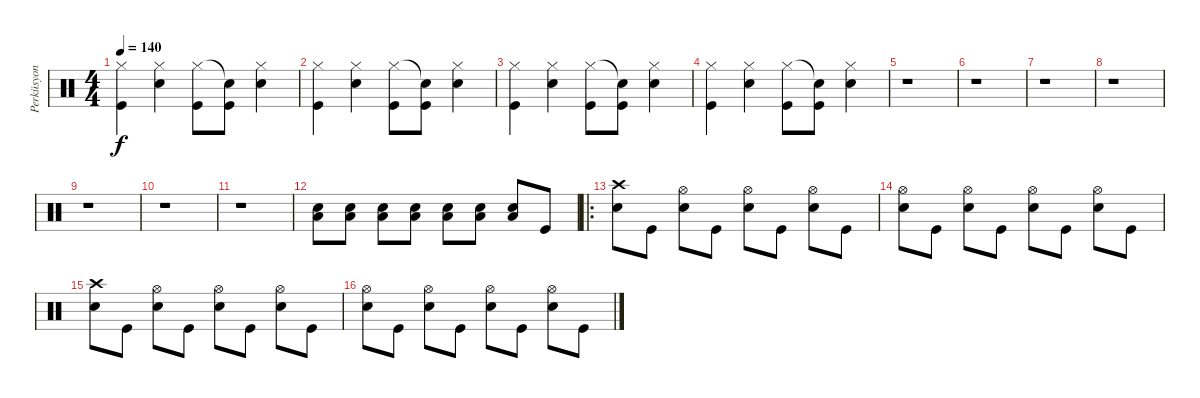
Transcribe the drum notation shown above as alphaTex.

\track ("Perküsyon" "Perküsyon") {instrument percussion}
\staff {score}
\articulation defaults
\ts (4 4)
\tempo 140
\clef neutral
\ks c
("Kick (hit)" "Hi-Hat (closed)").4{dy f} ("Electric Snare (hit)" "Hi-Hat (closed)").4 ("Kick (hit)" "Hi-Hat (closed)").8 ("Kick (hit)" "Snare (hit)"{t}).8 ("Electric Snare (hit)" "Hi-Hat (closed)").4 |
("Kick (hit)" "Hi-Hat (closed)").4 ("Electric Snare (hit)" "Hi-Hat (closed)").4 ("Kick (hit)" "Hi-Hat (closed)").8 ("Kick (hit)" "Snare (hit)"{t}).8 ("Electric Snare (hit)" "Hi-Hat (closed)").4 |
("Kick (hit)" "Hi-Hat (closed)").4 ("Electric Snare (hit)" "Hi-Hat (closed)").4 ("Kick (hit)" "Hi-Hat (closed)").8 ("Kick (hit)" "Snare (hit)"{t}).8 ("Electric Snare (hit)" "Hi-Hat (closed)").4 |
("Kick (hit)" "Hi-Hat (closed)").4 ("Electric Snare (hit)" "Hi-Hat (closed)").4 ("Kick (hit)" "Hi-Hat (closed)").8 ("Kick (hit)" "Snare (hit)"{t}).8 ("Electric Snare (hit)" "Hi-Hat (closed)").4 |
r.1 |
r.1 |
r.1 |
r.1 |
r.1 |
r.1 |
r.1 |
("Electric Snare (hit)" "Low Floor Tom (hit)").8{volume 2} ("Electric Snare (hit)" "Low Floor Tom (hit)").8{volume 4} ("Electric Snare (hit)" "Low Floor Tom (hit)").8{volume 6} ("Electric Snare (hit)" "Low Floor Tom (hit)").8{volume 8} ("Electric Snare (hit)" "Low Floor Tom (hit)").8{volume 10} ("Electric Snare (hit)" "Low Floor Tom (hit)").8{volume 12} ("Electric Snare (hit)" "Low Floor Tom (hit)").8{volume 14} "Kick (hit)".8{volume 16} |
\ro
("Electric Snare (hit)" "Crash high (hit)").8 "Kick (hit)".8 ("Electric Snare (hit)" "Hi-Hat (open)").8 "Kick (hit)".8 ("Electric Snare (hit)" "Hi-Hat (open)").8 "Kick (hit)".8 ("Electric Snare (hit)" "Hi-Hat (open)").8 "Kick (hit)".8 |
("Electric Snare (hit)" "Hi-Hat (open)").8 "Kick (hit)".8 ("Electric Snare (hit)" "Hi-Hat (open)").8 "Kick (hit)".8 ("Electric Snare (hit)" "Hi-Hat (open)").8 "Kick (hit)".8 ("Electric Snare (hit)" "Hi-Hat (open)").8 "Kick (hit)".8 |
("Electric Snare (hit)" "Crash high (hit)").8 "Kick (hit)".8 ("Electric Snare (hit)" "Hi-Hat (open)").8 "Kick (hit)".8 ("Electric Snare (hit)" "Hi-Hat (open)").8 "Kick (hit)".8 ("Electric Snare (hit)" "Hi-Hat (open)").8 "Kick (hit)".8 |
("Electric Snare (hit)" "Hi-Hat (open)").8 "Kick (hit)".8 ("Electric Snare (hit)" "Hi-Hat (open)").8 "Kick (hit)".8 ("Electric Snare (hit)" "Hi-Hat (open)").8 "Kick (hit)".8 ("Electric Snare (hit)" "Hi-Hat (open)").8 "Kick (hit)".8
